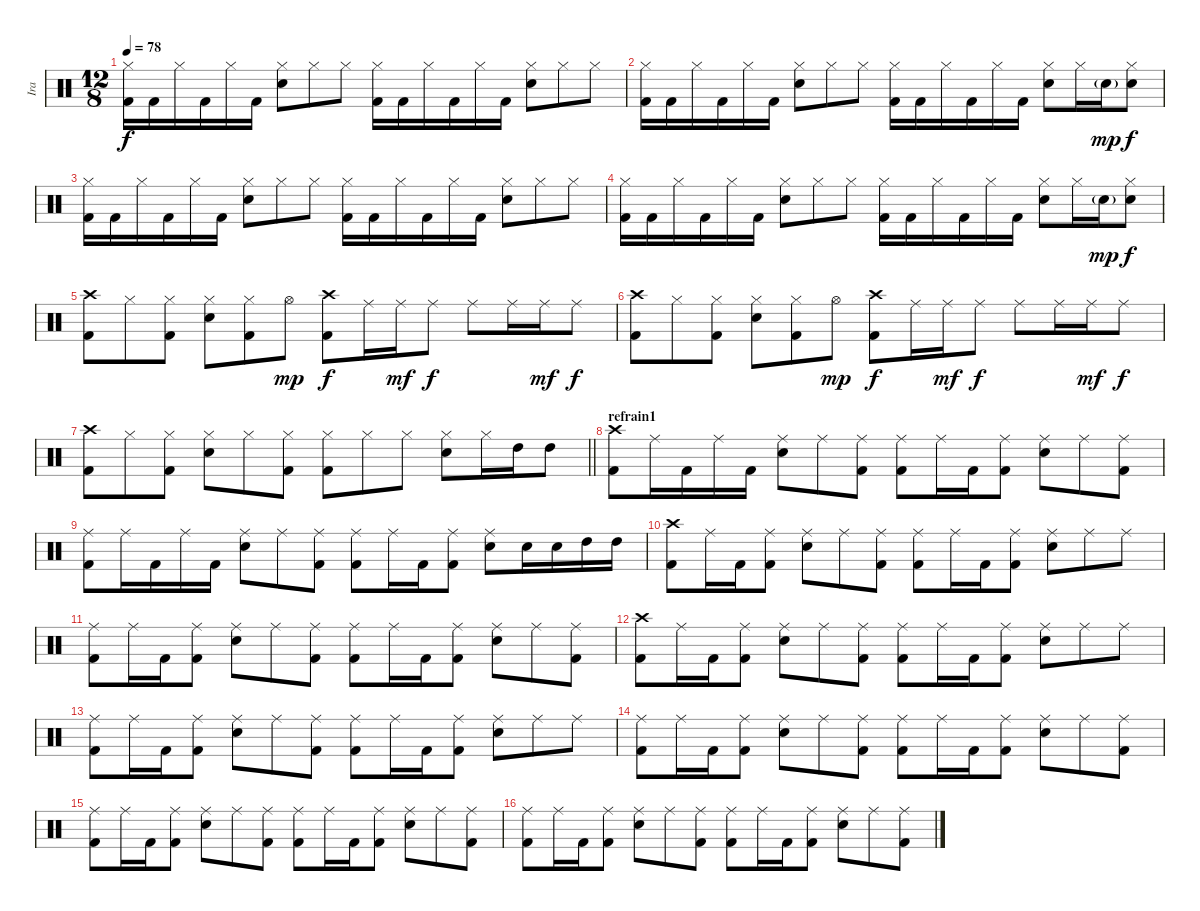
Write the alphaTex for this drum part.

\track ("Ira" "Ira") {instrument percussion}
\staff {score}
\articulation defaults
\ts (12 8)
\tempo 78
\clef neutral
\ks c
("Hi-Hat (closed)" "Kick (hit) 2").16{dy f} "Kick (hit) 2".16 "Hi-Hat (closed)".16 "Kick (hit) 2".16 "Hi-Hat (closed)".16 "Kick (hit) 2".16 ("Hi-Hat (closed)" "Snare (hit) 2").8 "Hi-Hat (closed)".8 "Hi-Hat (closed)".8 ("Hi-Hat (closed)" "Kick (hit) 2").16 "Kick (hit) 2".16 "Hi-Hat (closed)".16 "Kick (hit) 2".16 "Hi-Hat (closed)".16 "Kick (hit) 2".16 ("Hi-Hat (closed)" "Snare (hit) 2").8 "Hi-Hat (closed)".8 "Hi-Hat (closed)".8 |
("Hi-Hat (closed)" "Kick (hit) 2").16 "Kick (hit) 2".16 "Hi-Hat (closed)".16 "Kick (hit) 2".16 "Hi-Hat (closed)".16 "Kick (hit) 2".16 ("Hi-Hat (closed)" "Snare (hit) 2").8 "Hi-Hat (closed)".8 "Hi-Hat (closed)".8 ("Hi-Hat (closed)" "Kick (hit) 2").16 "Kick (hit) 2".16 "Hi-Hat (closed)".16 "Kick (hit) 2".16 "Hi-Hat (closed)".16 "Kick (hit) 2".16 ("Hi-Hat (closed)" "Snare (hit) 2").8 "Hi-Hat (closed)".16 "Snare (hit) 2"{g}.16{dy mp} ("Hi-Hat (closed)" "Snare (hit) 2").8{dy f} |
("Hi-Hat (closed)" "Kick (hit) 2").16 "Kick (hit) 2".16 "Hi-Hat (closed)".16 "Kick (hit) 2".16 "Hi-Hat (closed)".16 "Kick (hit) 2".16 ("Hi-Hat (closed)" "Snare (hit) 2").8 "Hi-Hat (closed)".8 "Hi-Hat (closed)".8 ("Hi-Hat (closed)" "Kick (hit) 2").16 "Kick (hit) 2".16 "Hi-Hat (closed)".16 "Kick (hit) 2".16 "Hi-Hat (closed)".16 "Kick (hit) 2".16 ("Hi-Hat (closed)" "Snare (hit) 2").8 "Hi-Hat (closed)".8 "Hi-Hat (closed)".8 |
("Hi-Hat (closed)" "Kick (hit) 2").16 "Kick (hit) 2".16 "Hi-Hat (closed)".16 "Kick (hit) 2".16 "Hi-Hat (closed)".16 "Kick (hit) 2".16 ("Hi-Hat (closed)" "Snare (hit) 2").8 "Hi-Hat (closed)".8 "Hi-Hat (closed)".8 ("Hi-Hat (closed)" "Kick (hit) 2").16 "Kick (hit) 2".16 "Hi-Hat (closed)".16 "Kick (hit) 2".16 "Hi-Hat (closed)".16 "Kick (hit) 2".16 ("Hi-Hat (closed)" "Snare (hit) 2").8 "Hi-Hat (closed)".16 "Snare (hit) 2"{g}.16{dy mp} ("Hi-Hat (closed)" "Snare (hit) 2").8{dy f} |
("Crash high (hit)" "Kick (hit) 2").8 "Hi-Hat (closed)".8 ("Hi-Hat (closed)" "Kick (hit) 2").8 ("Hi-Hat (closed)" "Snare (hit) 2").8 ("Hi-Hat (closed)" "Kick (hit) 2").8 "Hi-Hat (open)".8{dy mp} ("Crash high (hit)" "Kick (hit) 2").8{dy f} "Ride (middle)".16 "Ride (middle)".16{dy mf} "Ride (middle)".8{dy f} "Ride (middle)".8 "Ride (middle)".16 "Ride (middle)".16{dy mf} "Ride (middle)".8{dy f} |
("Crash high (hit)" "Kick (hit) 2").8 "Hi-Hat (closed)".8 ("Hi-Hat (closed)" "Kick (hit) 2").8 ("Hi-Hat (closed)" "Snare (hit) 2").8 ("Hi-Hat (closed)" "Kick (hit) 2").8 "Hi-Hat (open)".8{dy mp} ("Crash high (hit)" "Kick (hit) 2").8{dy f} "Ride (middle)".16 "Ride (middle)".16{dy mf} "Ride (middle)".8{dy f} "Ride (middle)".8 "Ride (middle)".16 "Ride (middle)".16{dy mf} "Ride (middle)".8{dy f} |
\barLineRight lightlight
("Crash high (hit)" "Kick (hit) 2").8 "Hi-Hat (closed)".8 ("Hi-Hat (closed)" "Kick (hit) 2").8 ("Hi-Hat (closed)" "Snare (hit) 2").8 "Hi-Hat (closed)".8 ("Hi-Hat (closed)" "Kick (hit) 2").8 ("Hi-Hat (closed)" "Kick (hit) 2").8 "Hi-Hat (closed)".8 "Hi-Hat (closed)".8 ("Hi-Hat (closed)" "Snare (hit) 2").8 "Hi-Hat (closed)".16 "High Tom (hit)".16 "High Tom (hit)".8 |
\section ("" "refrain1")
("Crash high (hit)" "Kick (hit) 2").8 "Ride (middle)".16 "Kick (hit) 2".16 "Ride (middle)".16 "Kick (hit) 2".16 ("Ride (middle)" "Snare (hit) 2").8 "Ride (middle)".8 ("Ride (middle)" "Kick (hit) 2").8 ("Ride (middle)" "Kick (hit) 2").8 "Ride (middle)".16 "Kick (hit) 2".16 ("Ride (middle)" "Kick (hit) 2").8 ("Ride (middle)" "Snare (hit) 2").8 "Ride (middle)".8 ("Ride (middle)" "Kick (hit) 2").8 |
("Ride (middle)" "Kick (hit) 2").8 "Ride (middle)".16 "Kick (hit) 2".16 "Ride (middle)".16 "Kick (hit) 2".16 ("Ride (middle)" "Snare (hit) 2").8 "Ride (middle)".8 ("Ride (middle)" "Kick (hit) 2").8 ("Ride (middle)" "Kick (hit) 2").8 "Ride (middle)".16 "Kick (hit) 2".16 ("Ride (middle)" "Kick (hit) 2").8 ("Ride (middle)" "Snare (hit) 2").8 "Snare (hit) 2".16 "Snare (hit) 2".16 "High Tom (hit)".16 "High Tom (hit)".16 |
("Crash high (hit)" "Kick (hit) 2").8 "Ride (middle)".16 "Kick (hit) 2".16 ("Ride (middle)" "Kick (hit) 2").8 ("Ride (middle)" "Snare (hit) 2").8 "Ride (middle)".8 ("Ride (middle)" "Kick (hit) 2").8 ("Ride (middle)" "Kick (hit) 2").8 "Ride (middle)".16 "Kick (hit) 2".16 ("Ride (middle)" "Kick (hit) 2").8 ("Ride (middle)" "Snare (hit) 2").8 "Ride (middle)".8 "Ride (middle)".8 |
("Ride (middle)" "Kick (hit) 2").8 "Ride (middle)".16 "Kick (hit) 2".16 ("Ride (middle)" "Kick (hit) 2").8 ("Ride (middle)" "Snare (hit) 2").8 "Ride (middle)".8 ("Ride (middle)" "Kick (hit) 2").8 ("Ride (middle)" "Kick (hit) 2").8 "Ride (middle)".16 "Kick (hit) 2".16 ("Ride (middle)" "Kick (hit) 2").8 ("Ride (middle)" "Snare (hit) 2").8 "Ride (middle)".8 ("Ride (middle)" "Kick (hit) 2").8 |
("Crash high (hit)" "Kick (hit) 2").8 "Ride (middle)".16 "Kick (hit) 2".16 ("Ride (middle)" "Kick (hit) 2").8 ("Ride (middle)" "Snare (hit) 2").8 "Ride (middle)".8 ("Ride (middle)" "Kick (hit) 2").8 ("Ride (middle)" "Kick (hit) 2").8 "Ride (middle)".16 "Kick (hit) 2".16 ("Ride (middle)" "Kick (hit) 2").8 ("Ride (middle)" "Snare (hit) 2").8 "Ride (middle)".8 "Ride (middle)".8 |
("Ride (middle)" "Kick (hit) 2").8 "Ride (middle)".16 "Kick (hit) 2".16 ("Ride (middle)" "Kick (hit) 2").8 ("Ride (middle)" "Snare (hit) 2").8 "Ride (middle)".8 ("Ride (middle)" "Kick (hit) 2").8 ("Ride (middle)" "Kick (hit) 2").8 "Ride (middle)".16 "Kick (hit) 2".16 ("Ride (middle)" "Kick (hit) 2").8 ("Ride (middle)" "Snare (hit) 2").8 "Ride (middle)".8 "Ride (middle)".8 |
("Ride (middle)" "Kick (hit) 2").8 "Ride (middle)".16 "Kick (hit) 2".16 ("Ride (middle)" "Kick (hit) 2").8 ("Ride (middle)" "Snare (hit) 2").8 "Ride (middle)".8 ("Ride (middle)" "Kick (hit) 2").8 ("Ride (middle)" "Kick (hit) 2").8 "Ride (middle)".16 "Kick (hit) 2".16 ("Ride (middle)" "Kick (hit) 2").8 ("Ride (middle)" "Snare (hit) 2").8 "Ride (middle)".8 ("Ride (middle)" "Kick (hit) 2").8 |
("Ride (middle)" "Kick (hit) 2").8 "Ride (middle)".16 "Kick (hit) 2".16 ("Ride (middle)" "Kick (hit) 2").8 ("Ride (middle)" "Snare (hit) 2").8 "Ride (middle)".8 ("Ride (middle)" "Kick (hit) 2").8 ("Ride (middle)" "Kick (hit) 2").8 "Ride (middle)".16 "Kick (hit) 2".16 ("Ride (middle)" "Kick (hit) 2").8 ("Ride (middle)" "Snare (hit) 2").8 "Ride (middle)".8 ("Ride (middle)" "Kick (hit) 2").8 |
("Ride (middle)" "Kick (hit) 2").8 "Ride (middle)".16 "Kick (hit) 2".16 ("Ride (middle)" "Kick (hit) 2").8 ("Ride (middle)" "Snare (hit) 2").8 "Ride (middle)".8 ("Ride (middle)" "Kick (hit) 2").8 ("Ride (middle)" "Kick (hit) 2").8 "Ride (middle)".16 "Kick (hit) 2".16 ("Ride (middle)" "Kick (hit) 2").8 ("Ride (middle)" "Snare (hit) 2").8 "Ride (middle)".8 ("Ride (middle)" "Kick (hit) 2").8
